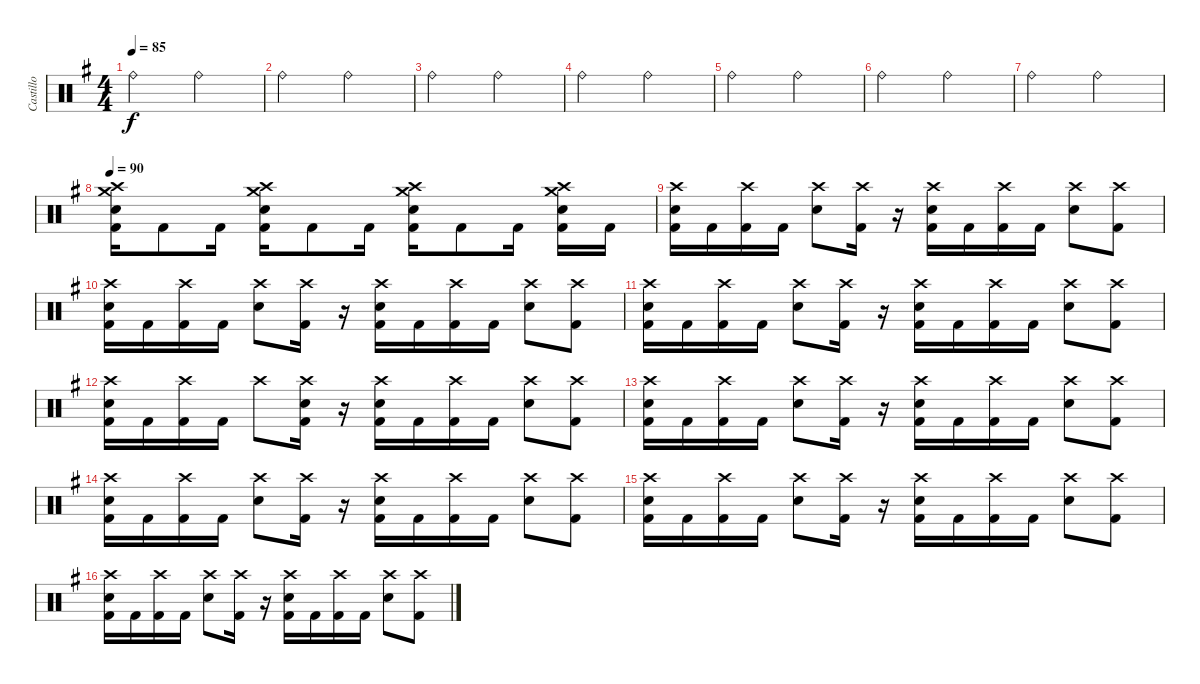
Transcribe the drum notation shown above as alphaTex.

\track ("Castillo" "Castillo") {instrument percussion}
\staff {score}
\articulation defaults
\ts (4 4)
\tempo 85
\clef neutral
\ks g "Ride (bell)".2{dy f} "Ride (bell)".2
|
"Ride (bell)".2 "Ride (bell)".2 |
"Ride (bell)".2 "Ride (bell)".2 |
"Ride (bell)".2 "Ride (bell)".2 |
"Ride (bell)".2 "Ride (bell)".2 |
"Ride (bell)".2 "Ride (bell)".2 |
"Ride (bell)".2 "Ride (bell)".2 |
\tempo 90
("Kick (hit) 2" "Electric Snare (hit)" "Crash high (hit)" "Crash medium (hit)").16 "Kick (hit) 2".8 "Kick (hit) 2".16 ("Kick (hit) 2" "Electric Snare (hit)" "Crash high (hit)" "Crash medium (hit)").16 "Kick (hit) 2".8 "Kick (hit) 2".16 ("Kick (hit) 2" "Electric Snare (hit)" "Crash high (hit)" "Crash medium (hit)").16 "Kick (hit) 2".8 "Kick (hit) 2".16 ("Kick (hit) 2" "Electric Snare (hit)" "Crash high (hit)" "Crash medium (hit)").16 "Kick (hit) 2".16 |
("Kick (hit) 2" "Electric Snare (hit)" "Crash high (hit)").16 "Kick (hit) 2".16 ("Kick (hit) 2" "Crash high (hit)").16 "Kick (hit) 2".16 ("Electric Snare (hit)" "Crash high (hit)").8 ("Kick (hit) 2" "Crash high (hit)").16 r.16 ("Kick (hit) 2" "Electric Snare (hit)" "Crash high (hit)").16 "Kick (hit) 2".16 ("Kick (hit) 2" "Crash high (hit)").16 "Kick (hit) 2".16 ("Electric Snare (hit)" "Crash high (hit)").8 ("Kick (hit) 2" "Crash high (hit)").8 |
("Kick (hit) 2" "Electric Snare (hit)" "Crash high (hit)").16 "Kick (hit) 2".16 ("Kick (hit) 2" "Crash high (hit)").16 "Kick (hit) 2".16 ("Electric Snare (hit)" "Crash high (hit)").8 ("Kick (hit) 2" "Crash high (hit)").16 r.16 ("Kick (hit) 2" "Electric Snare (hit)" "Crash high (hit)").16 "Kick (hit) 2".16 ("Kick (hit) 2" "Crash high (hit)").16 "Kick (hit) 2".16 ("Electric Snare (hit)" "Crash high (hit)").8 ("Kick (hit) 2" "Crash high (hit)").8 |
("Kick (hit) 2" "Electric Snare (hit)" "Crash high (hit)").16 "Kick (hit) 2".16 ("Kick (hit) 2" "Crash high (hit)").16 "Kick (hit) 2".16 ("Electric Snare (hit)" "Crash high (hit)").8 ("Kick (hit) 2" "Crash high (hit)").16 r.16 ("Kick (hit) 2" "Electric Snare (hit)" "Crash high (hit)").16 "Kick (hit) 2".16 ("Kick (hit) 2" "Crash high (hit)").16 "Kick (hit) 2".16 ("Electric Snare (hit)" "Crash high (hit)").8 ("Kick (hit) 2" "Crash high (hit)").8 |
("Kick (hit) 2" "Electric Snare (hit)" "Crash high (hit)").16 "Kick (hit) 2".16 ("Kick (hit) 2" "Crash high (hit)").16 "Kick (hit) 2".16 "Crash high (hit)".8 ("Kick (hit) 2" "Electric Snare (hit)" "Crash high (hit)").16 r.16 ("Kick (hit) 2" "Electric Snare (hit)" "Crash high (hit)").16 "Kick (hit) 2".16 ("Kick (hit) 2" "Crash high (hit)").16 "Kick (hit) 2".16 ("Electric Snare (hit)" "Crash high (hit)").8 ("Kick (hit) 2" "Crash high (hit)").8 |
("Kick (hit) 2" "Electric Snare (hit)" "Crash high (hit)").16 "Kick (hit) 2".16 ("Kick (hit) 2" "Crash high (hit)").16 "Kick (hit) 2".16 ("Electric Snare (hit)" "Crash high (hit)").8 ("Kick (hit) 2" "Crash high (hit)").16 r.16 ("Kick (hit) 2" "Electric Snare (hit)" "Crash high (hit)").16 "Kick (hit) 2".16 ("Kick (hit) 2" "Crash high (hit)").16 "Kick (hit) 2".16 ("Electric Snare (hit)" "Crash high (hit)").8 ("Kick (hit) 2" "Crash high (hit)").8 |
("Kick (hit) 2" "Electric Snare (hit)" "Crash high (hit)").16 "Kick (hit) 2".16 ("Kick (hit) 2" "Crash high (hit)").16 "Kick (hit) 2".16 ("Electric Snare (hit)" "Crash high (hit)").8 ("Kick (hit) 2" "Crash high (hit)").16 r.16 ("Kick (hit) 2" "Electric Snare (hit)" "Crash high (hit)").16 "Kick (hit) 2".16 ("Kick (hit) 2" "Crash high (hit)").16 "Kick (hit) 2".16 ("Electric Snare (hit)" "Crash high (hit)").8 ("Kick (hit) 2" "Crash high (hit)").8 |
("Kick (hit) 2" "Electric Snare (hit)" "Crash high (hit)").16 "Kick (hit) 2".16 ("Kick (hit) 2" "Crash high (hit)").16 "Kick (hit) 2".16 ("Electric Snare (hit)" "Crash high (hit)").8 ("Kick (hit) 2" "Crash high (hit)").16 r.16 ("Kick (hit) 2" "Electric Snare (hit)" "Crash high (hit)").16 "Kick (hit) 2".16 ("Kick (hit) 2" "Crash high (hit)").16 "Kick (hit) 2".16 ("Electric Snare (hit)" "Crash high (hit)").8 ("Kick (hit) 2" "Crash high (hit)").8 |
("Kick (hit) 2" "Electric Snare (hit)" "Crash high (hit)").16 "Kick (hit) 2".16 ("Kick (hit) 2" "Crash high (hit)").16 "Kick (hit) 2".16 ("Electric Snare (hit)" "Crash high (hit)").8 ("Kick (hit) 2" "Crash high (hit)").16 r.16 ("Kick (hit) 2" "Electric Snare (hit)" "Crash high (hit)").16 "Kick (hit) 2".16 ("Kick (hit) 2" "Crash high (hit)").16 "Kick (hit) 2".16 ("Electric Snare (hit)" "Crash high (hit)").8 ("Kick (hit) 2" "Crash high (hit)").8
